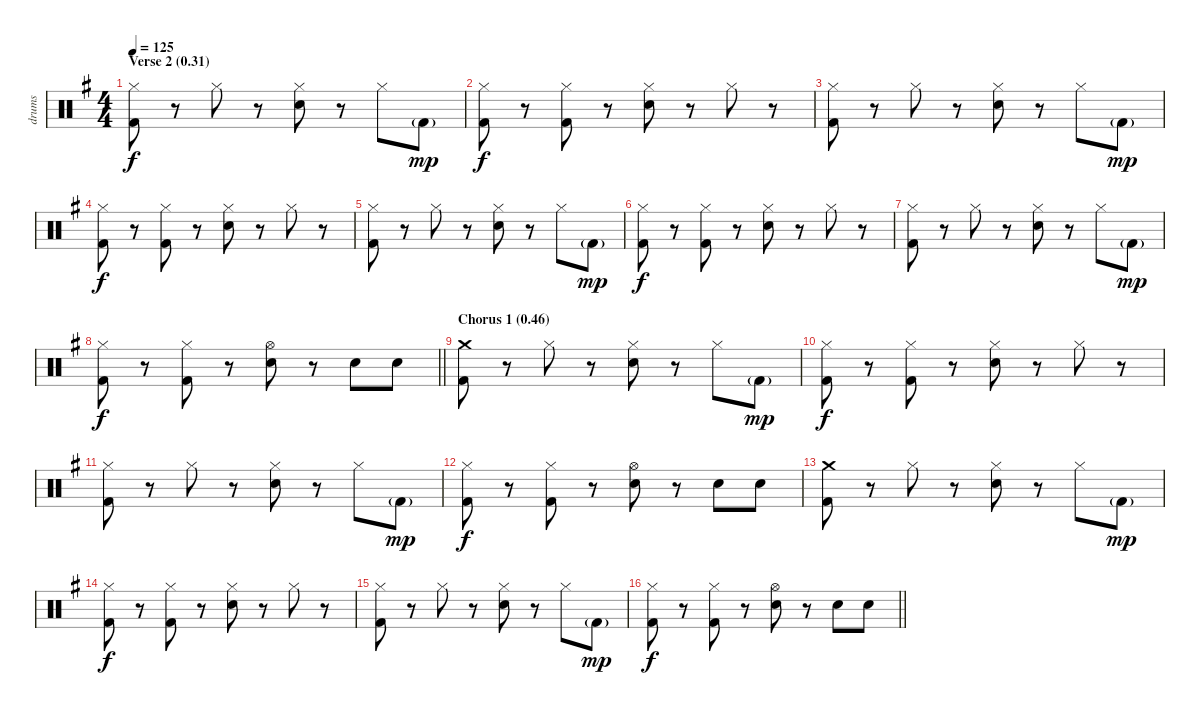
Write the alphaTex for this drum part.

\track ("drums" "drums") {instrument percussion}
\staff {score}
\articulation defaults
\ts (4 4)
\section ("" "Verse 2 (0.31)")
\tempo 125
\clef neutral
\ks g
("Hi-Hat (closed)" "Kick (hit) 2").8{dy f} r.8 "Hi-Hat (closed)".8 r.8 ("Hi-Hat (closed)" "Electric Snare (hit)").8 r.8 "Hi-Hat (closed)".8 "Kick (hit) 2"{g}.8{dy mp} |
("Hi-Hat (closed)" "Kick (hit) 2").8{dy f} r.8 ("Hi-Hat (closed)" "Kick (hit) 2").8 r.8 ("Hi-Hat (closed)" "Electric Snare (hit)").8 r.8 "Hi-Hat (closed)".8 r.8 |
("Hi-Hat (closed)" "Kick (hit) 2").8 r.8 "Hi-Hat (closed)".8 r.8 ("Hi-Hat (closed)" "Electric Snare (hit)").8 r.8 "Hi-Hat (closed)".8 "Kick (hit) 2"{g}.8{dy mp} |
("Hi-Hat (closed)" "Kick (hit) 2").8{dy f} r.8 ("Hi-Hat (closed)" "Kick (hit) 2").8 r.8 ("Hi-Hat (closed)" "Electric Snare (hit)").8 r.8 "Hi-Hat (closed)".8 r.8 |
("Hi-Hat (closed)" "Kick (hit) 2").8 r.8 "Hi-Hat (closed)".8 r.8 ("Hi-Hat (closed)" "Electric Snare (hit)").8 r.8 "Hi-Hat (closed)".8 "Kick (hit) 2"{g}.8{dy mp} |
("Hi-Hat (closed)" "Kick (hit) 2").8{dy f} r.8 ("Hi-Hat (closed)" "Kick (hit) 2").8 r.8 ("Hi-Hat (closed)" "Electric Snare (hit)").8 r.8 "Hi-Hat (closed)".8 r.8 |
("Hi-Hat (closed)" "Kick (hit) 2").8 r.8 "Hi-Hat (closed)".8 r.8 ("Hi-Hat (closed)" "Electric Snare (hit)").8 r.8 "Hi-Hat (closed)".8 "Kick (hit) 2"{g}.8{dy mp} |
\barLineRight lightlight
("Hi-Hat (closed)" "Kick (hit) 2").8{dy f} r.8 ("Hi-Hat (closed)" "Kick (hit) 2").8 r.8 ("Hi-Hat (open)" "Electric Snare (hit)").8 r.8 "Electric Snare (hit)".8 "Electric Snare (hit)".8 |
\section ("" "Chorus 1 (0.46)")
("Crash medium (hit)" "Kick (hit) 2").8 r.8 "Hi-Hat (closed)".8 r.8 ("Hi-Hat (closed)" "Electric Snare (hit)").8 r.8 "Hi-Hat (closed)".8 "Kick (hit) 2"{g}.8{dy mp} |
("Hi-Hat (closed)" "Kick (hit) 2").8{dy f} r.8 ("Hi-Hat (closed)" "Kick (hit) 2").8 r.8 ("Hi-Hat (closed)" "Electric Snare (hit)").8 r.8 "Hi-Hat (closed)".8 r.8 |
("Hi-Hat (closed)" "Kick (hit) 2").8 r.8 "Hi-Hat (closed)".8 r.8 ("Hi-Hat (closed)" "Electric Snare (hit)").8 r.8 "Hi-Hat (closed)".8 "Kick (hit) 2"{g}.8{dy mp} |
("Hi-Hat (closed)" "Kick (hit) 2").8{dy f} r.8 ("Hi-Hat (closed)" "Kick (hit) 2").8 r.8 ("Hi-Hat (open)" "Electric Snare (hit)").8 r.8 "Electric Snare (hit)".8 "Electric Snare (hit)".8 |
("Crash medium (hit)" "Kick (hit) 2").8 r.8 "Hi-Hat (closed)".8 r.8 ("Hi-Hat (closed)" "Electric Snare (hit)").8 r.8 "Hi-Hat (closed)".8 "Kick (hit) 2"{g}.8{dy mp} |
("Hi-Hat (closed)" "Kick (hit) 2").8{dy f} r.8 ("Hi-Hat (closed)" "Kick (hit) 2").8 r.8 ("Hi-Hat (closed)" "Electric Snare (hit)").8 r.8 "Hi-Hat (closed)".8 r.8 |
("Hi-Hat (closed)" "Kick (hit) 2").8 r.8 "Hi-Hat (closed)".8 r.8 ("Hi-Hat (closed)" "Electric Snare (hit)").8 r.8 "Hi-Hat (closed)".8 "Kick (hit) 2"{g}.8{dy mp} |
\barLineRight lightlight
("Hi-Hat (closed)" "Kick (hit) 2").8{dy f} r.8 ("Hi-Hat (closed)" "Kick (hit) 2").8 r.8 ("Hi-Hat (open)" "Electric Snare (hit)").8 r.8 "Electric Snare (hit)".8 "Electric Snare (hit)".8
